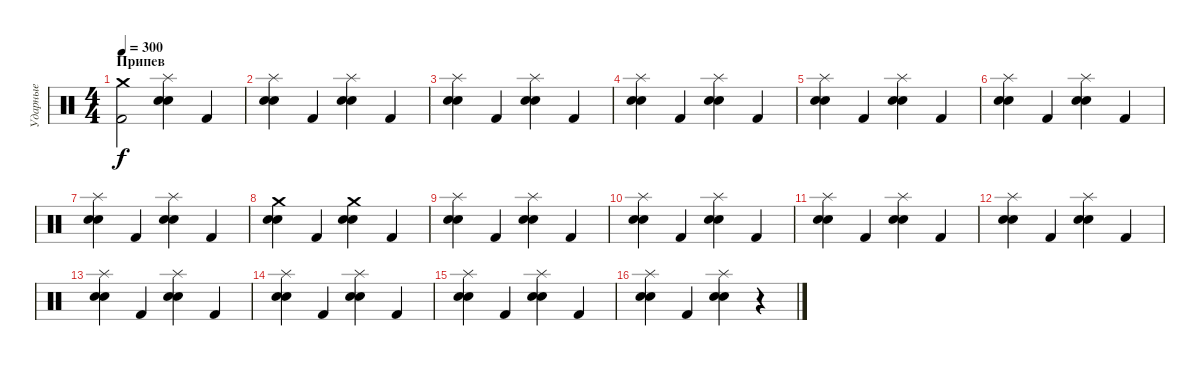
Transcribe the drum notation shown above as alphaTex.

\track ("Ударные" "Ударные") {instrument percussion}
\staff {score}
\articulation defaults
\ts (4 4)
\section ("" "Припев")
\tempo 300
\clef neutral
\ks c
("Crash medium (hit)" "Kick (hit) 2").2{dy f} ("Splash (hit)" "Electric Snare (hit)" "Snare (hit) 2").4 "Kick (hit) 2".4 |
("Splash (hit)" "Electric Snare (hit)" "Snare (hit) 2").4 "Kick (hit) 2".4 ("Splash (hit)" "Electric Snare (hit)" "Snare (hit) 2").4 "Kick (hit) 2".4 |
("Splash (hit)" "Electric Snare (hit)" "Snare (hit) 2").4 "Kick (hit) 2".4 ("Splash (hit)" "Electric Snare (hit)" "Snare (hit) 2").4 "Kick (hit) 2".4 |
("Splash (hit)" "Electric Snare (hit)" "Snare (hit) 2").4 "Kick (hit) 2".4 ("Splash (hit)" "Electric Snare (hit)" "Snare (hit) 2").4 "Kick (hit) 2".4 |
("Splash (hit)" "Electric Snare (hit)" "Snare (hit) 2").4 "Kick (hit) 2".4 ("Splash (hit)" "Electric Snare (hit)" "Snare (hit) 2").4 "Kick (hit) 2".4 |
("Splash (hit)" "Electric Snare (hit)" "Snare (hit) 2").4 "Kick (hit) 2".4 ("Splash (hit)" "Electric Snare (hit)" "Snare (hit) 2").4 "Kick (hit) 2".4 |
("Splash (hit)" "Electric Snare (hit)" "Snare (hit) 2").4 "Kick (hit) 2".4 ("Splash (hit)" "Electric Snare (hit)" "Snare (hit) 2").4 "Kick (hit) 2".4 |
("Crash medium (hit)" "Electric Snare (hit)" "Snare (hit) 2").4 "Kick (hit) 2".4 ("Crash medium (hit)" "Electric Snare (hit)" "Snare (hit) 2").4 "Kick (hit) 2".4 |
("Splash (hit)" "Electric Snare (hit)" "Snare (hit) 2").4 "Kick (hit) 2".4 ("Splash (hit)" "Electric Snare (hit)" "Snare (hit) 2").4 "Kick (hit) 2".4 |
("Splash (hit)" "Electric Snare (hit)" "Snare (hit) 2").4 "Kick (hit) 2".4 ("Splash (hit)" "Electric Snare (hit)" "Snare (hit) 2").4 "Kick (hit) 2".4 |
("Splash (hit)" "Electric Snare (hit)" "Snare (hit) 2").4 "Kick (hit) 2".4 ("Splash (hit)" "Electric Snare (hit)" "Snare (hit) 2").4 "Kick (hit) 2".4 |
("Splash (hit)" "Electric Snare (hit)" "Snare (hit) 2").4 "Kick (hit) 2".4 ("Splash (hit)" "Electric Snare (hit)" "Snare (hit) 2").4 "Kick (hit) 2".4 |
("Splash (hit)" "Electric Snare (hit)" "Snare (hit) 2").4 "Kick (hit) 2".4 ("Splash (hit)" "Electric Snare (hit)" "Snare (hit) 2").4 "Kick (hit) 2".4 |
("Splash (hit)" "Electric Snare (hit)" "Snare (hit) 2").4 "Kick (hit) 2".4 ("Splash (hit)" "Electric Snare (hit)" "Snare (hit) 2").4 "Kick (hit) 2".4 |
("Splash (hit)" "Electric Snare (hit)" "Snare (hit) 2").4 "Kick (hit) 2".4 ("Splash (hit)" "Electric Snare (hit)" "Snare (hit) 2").4 "Kick (hit) 2".4 |
("Splash (hit)" "Electric Snare (hit)" "Snare (hit) 2").4 "Kick (hit) 2".4 ("Splash (hit)" "Electric Snare (hit)" "Snare (hit) 2").4 r.4
